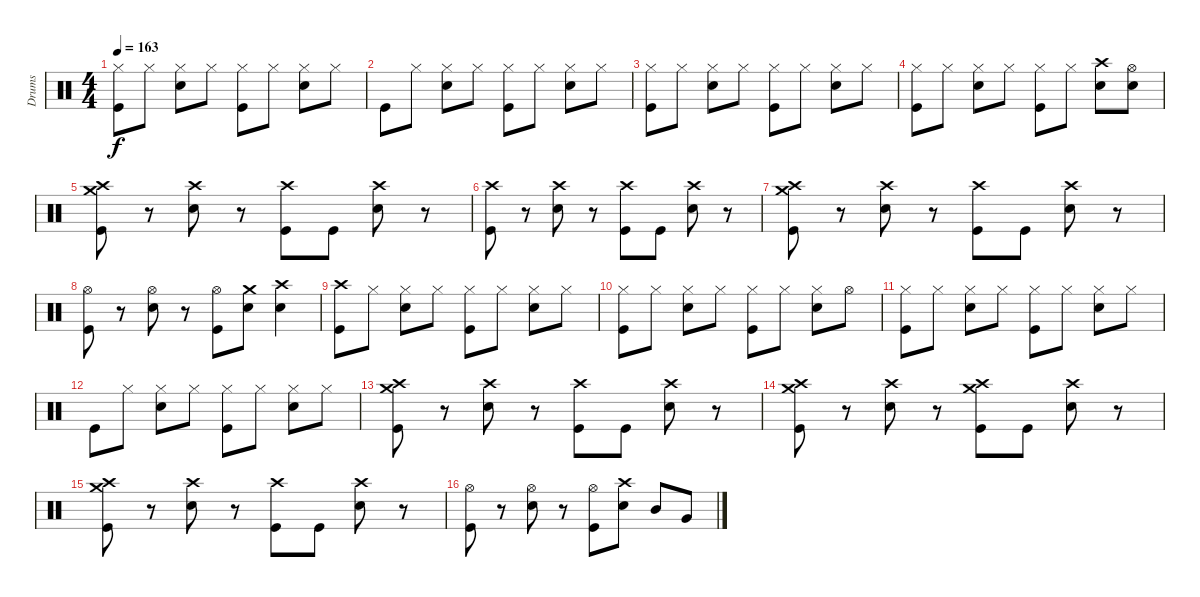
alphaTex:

\track ("Drums" "Drums") {instrument percussion}
\staff {score}
\articulation defaults
\ts (4 4)
\tempo 163
\clef neutral
\ks c
("Hi-Hat (closed)" "Kick (hit)").8{dy f} "Hi-Hat (closed)".8 ("Hi-Hat (closed)" "Electric Snare (hit)").8 "Hi-Hat (closed)".8 ("Hi-Hat (closed)" "Kick (hit)").8 "Hi-Hat (closed)".8 ("Hi-Hat (closed)" "Electric Snare (hit)").8 "Hi-Hat (closed)".8 |
"Kick (hit)".8 "Hi-Hat (closed)".8 ("Hi-Hat (closed)" "Electric Snare (hit)").8 "Hi-Hat (closed)".8 ("Hi-Hat (closed)" "Kick (hit)").8 "Hi-Hat (closed)".8 ("Hi-Hat (closed)" "Electric Snare (hit)").8 "Hi-Hat (closed)".8 |
("Hi-Hat (closed)" "Kick (hit)").8 "Hi-Hat (closed)".8 ("Hi-Hat (closed)" "Electric Snare (hit)").8 "Hi-Hat (closed)".8 ("Hi-Hat (closed)" "Kick (hit)").8 "Hi-Hat (closed)".8 ("Hi-Hat (closed)" "Electric Snare (hit)").8 "Hi-Hat (closed)".8 |
("Hi-Hat (closed)" "Kick (hit)").8 "Hi-Hat (closed)".8 ("Hi-Hat (closed)" "Electric Snare (hit)").8 "Hi-Hat (closed)".8 ("Hi-Hat (closed)" "Kick (hit)").8 "Hi-Hat (closed)".8 ("Crash high (hit)" "Electric Snare (hit)").8 ("Hi-Hat (open)" "Electric Snare (hit)").8 |
("Crash high (hit)" "Crash medium (hit)" "Kick (hit)").8 r.8 ("Crash high (hit)" "Electric Snare (hit)").8 r.8 ("Crash high (hit)" "Kick (hit)").8 "Kick (hit)".8 ("Crash high (hit)" "Electric Snare (hit)").8 r.8 |
("Crash high (hit)" "Kick (hit)").8 r.8 ("Crash high (hit)" "Electric Snare (hit)").8 r.8 ("Crash high (hit)" "Kick (hit)").8 "Kick (hit)".8 ("Crash high (hit)" "Electric Snare (hit)").8 r.8 |
("Crash high (hit)" "Crash medium (hit)" "Kick (hit)").8 r.8 ("Crash high (hit)" "Electric Snare (hit)").8 r.8 ("Crash high (hit)" "Kick (hit)").8 "Kick (hit)".8 ("Crash high (hit)" "Electric Snare (hit)").8 r.8 |
("Hi-Hat (open)" "Kick (hit)").8 r.8 ("Hi-Hat (open)" "Electric Snare (hit)").8 r.8 ("Hi-Hat (open)" "Kick (hit)").8 ("Crash medium (hit)" "Electric Snare (hit)").8 ("Crash high (hit)" "Electric Snare (hit)").4 |
("Crash high (hit)" "Kick (hit)").8 "Hi-Hat (closed)".8 ("Hi-Hat (closed)" "Electric Snare (hit)").8 "Hi-Hat (closed)".8 ("Hi-Hat (closed)" "Kick (hit)").8 "Hi-Hat (closed)".8 ("Hi-Hat (closed)" "Electric Snare (hit)").8 "Hi-Hat (closed)".8 |
("Hi-Hat (closed)" "Kick (hit)").8 "Hi-Hat (closed)".8 ("Hi-Hat (closed)" "Electric Snare (hit)").8 "Hi-Hat (closed)".8 ("Hi-Hat (closed)" "Kick (hit)").8 "Hi-Hat (closed)".8 ("Hi-Hat (closed)" "Electric Snare (hit)").8 "Hi-Hat (open)".8 |
("Hi-Hat (closed)" "Kick (hit)").8 "Hi-Hat (closed)".8 ("Hi-Hat (closed)" "Electric Snare (hit)").8 "Hi-Hat (closed)".8 ("Hi-Hat (closed)" "Kick (hit)").8 "Hi-Hat (closed)".8 ("Hi-Hat (closed)" "Electric Snare (hit)").8 "Hi-Hat (closed)".8 |
"Kick (hit)".8 "Hi-Hat (closed)".8 ("Hi-Hat (closed)" "Electric Snare (hit)").8 "Hi-Hat (closed)".8 ("Hi-Hat (closed)" "Kick (hit)").8 "Hi-Hat (closed)".8 ("Hi-Hat (closed)" "Electric Snare (hit)").8 "Hi-Hat (closed)".8 |
("Crash high (hit)" "Crash medium (hit)" "Kick (hit)").8 r.8 ("Crash high (hit)" "Electric Snare (hit)").8 r.8 ("Crash high (hit)" "Kick (hit)").8 "Kick (hit)".8 ("Crash high (hit)" "Electric Snare (hit)").8 r.8 |
("Crash high (hit)" "Crash medium (hit)" "Kick (hit)").8 r.8 ("Crash high (hit)" "Electric Snare (hit)").8 r.8 ("Crash high (hit)" "Crash medium (hit)" "Kick (hit)").8 "Kick (hit)".8 ("Crash high (hit)" "Electric Snare (hit)").8 r.8 |
("Crash high (hit)" "Crash medium (hit)" "Kick (hit)").8 r.8 ("Crash high (hit)" "Electric Snare (hit)").8 r.8 ("Crash high (hit)" "Kick (hit)").8 "Kick (hit)".8 ("Crash high (hit)" "Electric Snare (hit)").8 r.8 |
("Hi-Hat (open)" "Kick (hit)").8 r.8 ("Hi-Hat (open)" "Electric Snare (hit)").8 r.8 ("Hi-Hat (open)" "Kick (hit)").8 ("Crash high (hit)" "Electric Snare (hit)").8 "Mid Tom (hit)".8 "Very Low Tom (hit)".8
